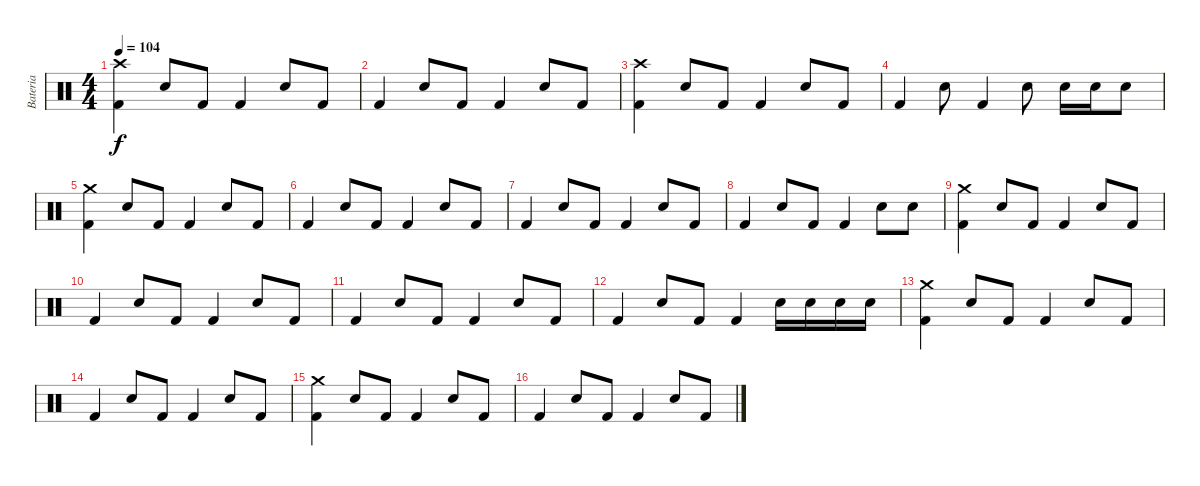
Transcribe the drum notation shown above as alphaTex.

\track ("Bateria" "Bateria") {instrument percussion}
\staff {score}
\articulation defaults
\ts (4 4)
\tempo 104
\clef neutral
\ks c
("Crash high (hit)" "Kick (hit) 2").4{dy f} "Snare (hit) 2".8 "Kick (hit) 2".8 "Kick (hit) 2".4 "Snare (hit) 2".8 "Kick (hit) 2".8 |
"Kick (hit) 2".4 "Snare (hit) 2".8 "Kick (hit) 2".8 "Kick (hit) 2".4 "Snare (hit) 2".8 "Kick (hit) 2".8 |
("Crash high (hit)" "Kick (hit) 2").4 "Snare (hit) 2".8 "Kick (hit) 2".8 "Kick (hit) 2".4 "Snare (hit) 2".8 "Kick (hit) 2".8 |
"Kick (hit) 2".4 "Snare (hit) 2".8 "Kick (hit) 2".4 "Snare (hit) 2".8 "Snare (hit) 2".16 "Snare (hit) 2".16 "Snare (hit) 2".8 |
("Crash medium (hit)" "Kick (hit) 2").4 "Snare (hit) 2".8 "Kick (hit) 2".8 "Kick (hit) 2".4 "Snare (hit) 2".8 "Kick (hit) 2".8 |
"Kick (hit) 2".4 "Snare (hit) 2".8 "Kick (hit) 2".8 "Kick (hit) 2".4 "Snare (hit) 2".8 "Kick (hit) 2".8 |
"Kick (hit) 2".4 "Snare (hit) 2".8 "Kick (hit) 2".8 "Kick (hit) 2".4 "Snare (hit) 2".8 "Kick (hit) 2".8 |
"Kick (hit) 2".4 "Snare (hit) 2".8 "Kick (hit) 2".8 "Kick (hit) 2".4 "Snare (hit) 2".8 "Snare (hit) 2".8 |
("Crash medium (hit)" "Kick (hit) 2").4 "Snare (hit) 2".8 "Kick (hit) 2".8 "Kick (hit) 2".4 "Snare (hit) 2".8 "Kick (hit) 2".8 |
"Kick (hit) 2".4 "Snare (hit) 2".8 "Kick (hit) 2".8 "Kick (hit) 2".4 "Snare (hit) 2".8 "Kick (hit) 2".8 |
"Kick (hit) 2".4 "Snare (hit) 2".8 "Kick (hit) 2".8 "Kick (hit) 2".4 "Snare (hit) 2".8 "Kick (hit) 2".8 |
"Kick (hit) 2".4 "Snare (hit) 2".8 "Kick (hit) 2".8 "Kick (hit) 2".4 "Snare (hit) 2".16 "Snare (hit) 2".16 "Snare (hit) 2".16 "Snare (hit) 2".16 |
("Crash medium (hit)" "Kick (hit) 2").4 "Snare (hit) 2".8 "Kick (hit) 2".8 "Kick (hit) 2".4 "Snare (hit) 2".8 "Kick (hit) 2".8 |
"Kick (hit) 2".4 "Snare (hit) 2".8 "Kick (hit) 2".8 "Kick (hit) 2".4 "Snare (hit) 2".8 "Kick (hit) 2".8 |
("Crash medium (hit)" "Kick (hit) 2").4 "Snare (hit) 2".8 "Kick (hit) 2".8 "Kick (hit) 2".4 "Snare (hit) 2".8 "Kick (hit) 2".8 |
"Kick (hit) 2".4 "Snare (hit) 2".8 "Kick (hit) 2".8 "Kick (hit) 2".4 "Snare (hit) 2".8 "Kick (hit) 2".8
